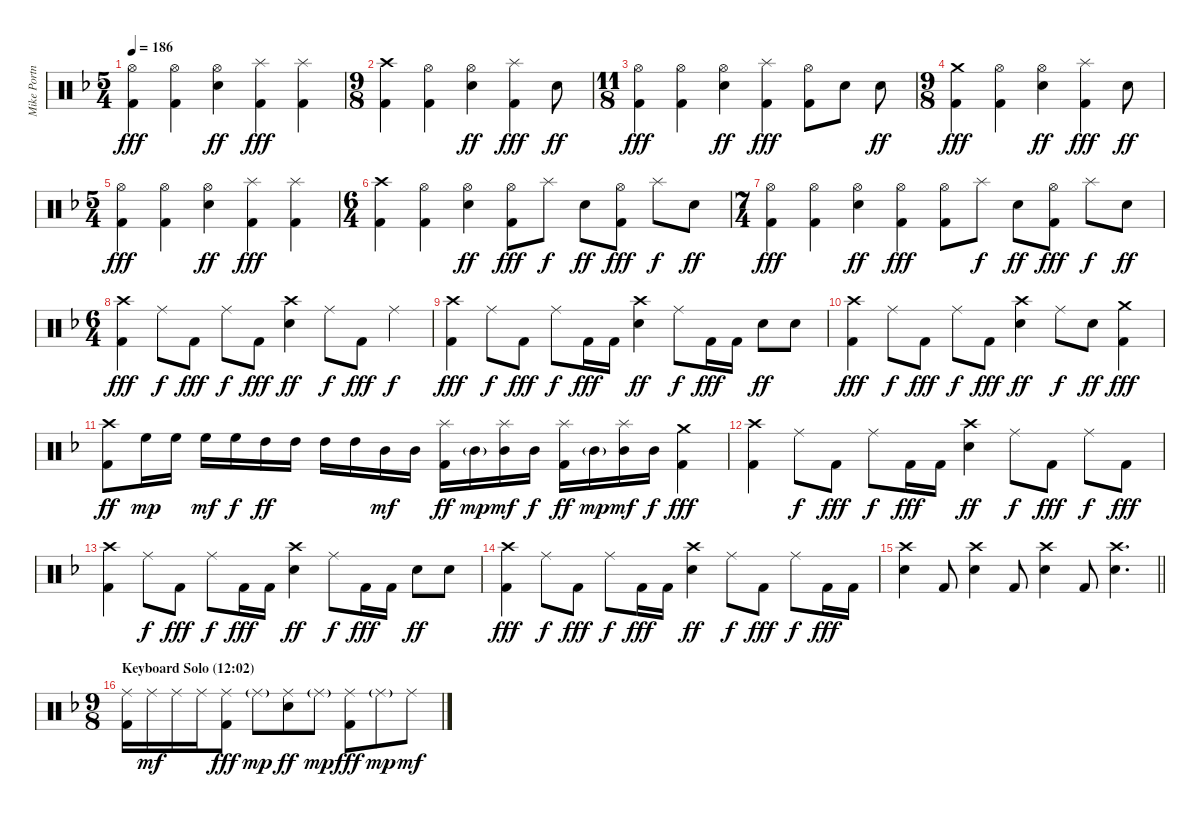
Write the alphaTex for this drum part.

\track ("Mike Portnoy Drums" "Mike Portn") {instrument percussion}
\staff {score}
\articulation defaults
\ts (5 4)
\tempo 186
\clef neutral
\ks dminor
("Hi-Hat (open)" "Kick (hit) 2").4{dy fff} ("Hi-Hat (open)" "Kick (hit) 2").4 ("Hi-Hat (open)" "Electric Snare (hit)").4{dy ff} ("Splash (hit)" "Kick (hit) 2").4{dy fff} ("Splash (hit)" "Kick (hit) 2").4 |
\ts (9 8)
("Crash high (hit)" "Kick (hit) 2").4 ("Hi-Hat (open)" "Kick (hit) 2").4 ("Hi-Hat (open)" "Electric Snare (hit)").4{dy ff} ("Splash (hit)" "Kick (hit) 2").4{dy fff} "Electric Snare (hit)".8{dy ff} |
\ts (11 8)
("Hi-Hat (open)" "Kick (hit) 2").4{dy fff} ("Hi-Hat (open)" "Kick (hit) 2").4 ("Hi-Hat (open)" "Electric Snare (hit)").4{dy ff} ("Splash (hit)" "Kick (hit) 2").4{dy fff} ("Hi-Hat (open)" "Kick (hit) 2").8 "Electric Snare (hit)".8 "Electric Snare (hit)".8{dy ff} |
\ts (9 8)
("Crash medium (hit)" "Kick (hit) 2").4{dy fff} ("Hi-Hat (open)" "Kick (hit) 2").4 ("Hi-Hat (open)" "Electric Snare (hit)").4{dy ff} ("Splash (hit)" "Kick (hit) 2").4{dy fff} "Electric Snare (hit)".8{dy ff} |
\ts (5 4)
("Hi-Hat (open)" "Kick (hit) 2").4{dy fff} ("Hi-Hat (open)" "Kick (hit) 2").4 ("Hi-Hat (open)" "Electric Snare (hit)").4{dy ff} ("Splash (hit)" "Kick (hit) 2").4{dy fff} ("Splash (hit)" "Kick (hit) 2").4 |
\ts (6 4)
("Crash high (hit)" "Kick (hit) 2").4 ("Hi-Hat (open)" "Kick (hit) 2").4 ("Hi-Hat (open)" "Electric Snare (hit)").4{dy ff} ("Hi-Hat (open)" "Kick (hit) 2").8{dy fff} "Splash (hit)".8{dy f} "Electric Snare (hit)".8{dy ff} ("Hi-Hat (open)" "Kick (hit) 2").8{dy fff} "Splash (hit)".8{dy f} "Electric Snare (hit)".8{dy ff} |
\ts (7 4)
("Hi-Hat (open)" "Kick (hit) 2").4{dy fff} ("Hi-Hat (open)" "Kick (hit) 2").4 ("Hi-Hat (open)" "Electric Snare (hit)").4{dy ff} ("Hi-Hat (open)" "Kick (hit) 2").4{dy fff} ("Hi-Hat (open)" "Kick (hit) 2").8 "Splash (hit)".8{dy f} "Electric Snare (hit)".8{dy ff} ("Hi-Hat (open)" "Kick (hit) 2").8{dy fff} "Splash (hit)".8{dy f} "Electric Snare (hit)".8{dy ff} |
\ts (6 4)
("Crash high (hit)" "Kick (hit) 2").4{dy fff} "Ride (middle)".8{dy f} "Kick (hit) 2".8{dy fff} "Ride (middle)".8{dy f} "Kick (hit) 2".8{dy fff} ("Crash high (hit)" "Electric Snare (hit)").4{dy ff} "Ride (middle)".8{dy f} "Kick (hit) 2".8{dy fff} "Ride (middle)".4{dy f} |
("Crash high (hit)" "Kick (hit) 2").4{dy fff} "Ride (middle)".8{dy f} "Kick (hit) 2".8{dy fff} "Ride (middle)".8{dy f} "Kick (hit) 2".16{dy fff} "Kick (hit) 2".16 ("Crash high (hit)" "Electric Snare (hit)").4{dy ff} "Ride (middle)".8{dy f} "Kick (hit) 2".16{dy fff} "Kick (hit) 2".16 "Electric Snare (hit)".8{dy ff} "Electric Snare (hit)".8 |
("Crash high (hit)" "Kick (hit) 2").4{dy fff} "Ride (middle)".8{dy f} "Kick (hit) 2".8{dy fff} "Ride (middle)".8{dy f} "Kick (hit) 2".8{dy fff} ("Crash high (hit)" "Electric Snare (hit)").4{dy ff} "Ride (middle)".8{dy f} "Electric Snare (hit)".8{dy ff} ("Crash medium (hit)" "Kick (hit) 2").4{dy fff} |
("Crash high (hit)" "Kick (hit) 2").8{dy ff} "High Floor Tom (hit)".16{dy mp} "High Floor Tom (hit)".16 "High Floor Tom (hit)".16{dy mf} "High Floor Tom (hit)".16{dy f} "High Tom (hit)".16{dy ff} "High Tom (hit)".16 "High Tom (hit)".16 "High Tom (hit)".16 "Mid Tom (hit)".16{dy mf} "Mid Tom (hit)".16 ("Splash (hit)" "Kick (hit) 2").16{dy ff} "Mid Tom (hit)"{g}.16{dy mp} ("Splash (hit)" "Mid Tom (hit)").16{dy mf} "Mid Tom (hit)".16{dy f} ("Splash (hit)" "Kick (hit) 2").16{dy ff} "Mid Tom (hit)"{g}.16{dy mp} ("Splash (hit)" "Mid Tom (hit)").16{dy mf} "Mid Tom (hit)".16{dy f} ("Crash medium (hit)" "Kick (hit) 2").4{dy fff} |
("Crash high (hit)" "Kick (hit) 2").4 "Ride (middle)".8{dy f} "Kick (hit) 2".8{dy fff} "Ride (middle)".8{dy f} "Kick (hit) 2".16{dy fff} "Kick (hit) 2".16 ("Crash high (hit)" "Electric Snare (hit)").4{dy ff} "Ride (middle)".8{dy f} "Kick (hit) 2".8{dy fff} "Ride (middle)".8{dy f} "Kick (hit) 2".8{dy fff} |
("Crash high (hit)" "Kick (hit) 2").4 "Ride (middle)".8{dy f} "Kick (hit) 2".8{dy fff} "Ride (middle)".8{dy f} "Kick (hit) 2".16{dy fff} "Kick (hit) 2".16 ("Crash high (hit)" "Electric Snare (hit)").4{dy ff} "Ride (middle)".8{dy f} "Kick (hit) 2".16{dy fff} "Kick (hit) 2".16 "Electric Snare (hit)".8{dy ff} "Electric Snare (hit)".8 |
("Crash high (hit)" "Kick (hit) 2").4{dy fff} "Ride (middle)".8{dy f} "Kick (hit) 2".8{dy fff} "Ride (middle)".8{dy f} "Kick (hit) 2".16{dy fff} "Kick (hit) 2".16 ("Crash high (hit)" "Electric Snare (hit)").4{dy ff} "Ride (middle)".8{dy f} "Kick (hit) 2".8{dy fff} "Ride (middle)".8{dy f} "Kick (hit) 2".16{dy fff} "Kick (hit) 2".16 |
\barLineRight lightlight
("Crash high (hit)" "Electric Snare (hit)").4 "Kick (hit) 2".8 ("Crash high (hit)" "Electric Snare (hit)").4 "Kick (hit) 2".8 ("Crash high (hit)" "Electric Snare (hit)").4 "Kick (hit) 2".8 ("Crash high (hit)" "Electric Snare (hit)").4{d} |
\ts (9 8)
\section ("" "Keyboard Solo (12:02)")
("Ride (middle)" "Kick (hit) 2").16 "Ride (middle)".16{dy mf} "Ride (middle)".16 "Ride (middle)".16 ("Ride (middle)" "Kick (hit) 2").8{dy fff} "Ride (middle)"{g}.8{dy mp} ("Ride (middle)" "Electric Snare (hit)").8{dy ff} "Ride (middle)"{g}.8{dy mp} ("Ride (middle)" "Kick (hit) 2").8{dy fff} "Ride (middle)"{g}.8{dy mp} "Ride (middle)".8{dy mf}
